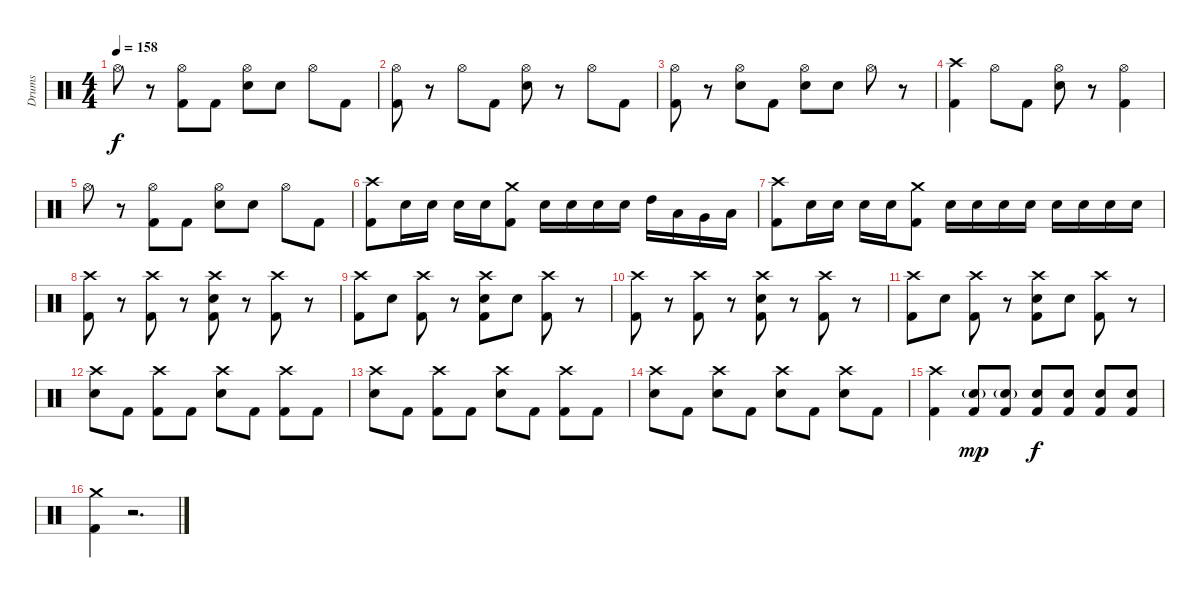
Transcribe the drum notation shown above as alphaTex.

\track ("Drums" "Drums") {instrument percussion}
\staff {score}
\articulation defaults
\ts (4 4)
\tempo 158
\clef neutral
\ks c "Hi-Hat (open)".8{dy f}
r.8 ("Hi-Hat (open)" "Kick (hit) 2").8 "Kick (hit) 2".8 ("Hi-Hat (open)" "Electric Snare (hit)").8 "Electric Snare (hit)".8 "Hi-Hat (open)".8 "Kick (hit) 2".8 |
("Hi-Hat (open)" "Kick (hit) 2").8 r.8 "Hi-Hat (open)".8 "Kick (hit) 2".8 ("Hi-Hat (open)" "Electric Snare (hit)").8 r.8 "Hi-Hat (open)".8 "Kick (hit) 2".8 |
("Hi-Hat (open)" "Kick (hit) 2").8 r.8 ("Hi-Hat (open)" "Electric Snare (hit)").8 "Kick (hit) 2".8 ("Hi-Hat (open)" "Electric Snare (hit)").8 "Electric Snare (hit)".8 "Hi-Hat (open)".8 r.8 |
("Crash high (hit)" "Kick (hit) 2").4 "Hi-Hat (open)".8 "Kick (hit) 2".8 ("Hi-Hat (open)" "Electric Snare (hit)").8 r.8 ("Hi-Hat (open)" "Kick (hit) 2").4 |
"Hi-Hat (open)".8 r.8 ("Hi-Hat (open)" "Kick (hit) 2").8 "Kick (hit) 2".8 ("Hi-Hat (open)" "Electric Snare (hit)").8 "Electric Snare (hit)".8 "Hi-Hat (open)".8 "Kick (hit) 2".8 |
("Crash high (hit)" "Kick (hit) 2").8 "Electric Snare (hit)".16 "Electric Snare (hit)".16 "Electric Snare (hit)".16 "Electric Snare (hit)".16 ("Crash medium (hit)" "Kick (hit) 2").8 "Electric Snare (hit)".16 "Electric Snare (hit)".16 "Electric Snare (hit)".16 "Electric Snare (hit)".16 "High Tom (hit)".16 "Low Tom (hit)".16 "Very Low Tom (hit)".16 "Low Floor Tom (hit)".16 |
("Crash high (hit)" "Kick (hit) 2").8 "Electric Snare (hit)".16 "Electric Snare (hit)".16 "Electric Snare (hit)".16 "Electric Snare (hit)".16 ("Crash medium (hit)" "Kick (hit) 2").8 "Electric Snare (hit)".16 "Electric Snare (hit)".16 "Electric Snare (hit)".16 "Electric Snare (hit)".16 "Electric Snare (hit)".16 "Electric Snare (hit)".16 "Electric Snare (hit)".16 "Electric Snare (hit)".16 |
("Crash high (hit)" "Kick (hit) 2").8 r.8 ("Crash high (hit)" "Kick (hit) 2").8 r.8 ("Crash high (hit)" "Electric Snare (hit)" "Kick (hit) 2").8 r.8 ("Crash high (hit)" "Kick (hit) 2").8 r.8 |
("Crash high (hit)" "Kick (hit) 2").8 "Electric Snare (hit)".8 ("Crash high (hit)" "Kick (hit) 2").8 r.8 ("Crash high (hit)" "Electric Snare (hit)" "Kick (hit) 2").8 "Electric Snare (hit)".8 ("Crash high (hit)" "Kick (hit) 2").8 r.8 |
("Crash high (hit)" "Kick (hit) 2").8 r.8 ("Crash high (hit)" "Kick (hit) 2").8 r.8 ("Crash high (hit)" "Electric Snare (hit)" "Kick (hit) 2").8 r.8 ("Crash high (hit)" "Kick (hit) 2").8 r.8 |
("Crash high (hit)" "Kick (hit) 2").8 "Electric Snare (hit)".8 ("Crash high (hit)" "Kick (hit) 2").8 r.8 ("Crash high (hit)" "Electric Snare (hit)" "Kick (hit) 2").8 "Electric Snare (hit)".8 ("Crash high (hit)" "Kick (hit) 2").8 r.8 |
("Crash high (hit)" "Electric Snare (hit)").8 "Kick (hit) 2".8 ("Crash high (hit)" "Kick (hit) 2").8 "Kick (hit) 2".8 ("Crash high (hit)" "Electric Snare (hit)").8 "Kick (hit) 2".8 ("Crash high (hit)" "Kick (hit) 2").8 "Kick (hit) 2".8 |
("Crash high (hit)" "Electric Snare (hit)").8 "Kick (hit) 2".8 ("Crash high (hit)" "Kick (hit) 2").8 "Kick (hit) 2".8 ("Crash high (hit)" "Electric Snare (hit)").8 "Kick (hit) 2".8 ("Crash high (hit)" "Kick (hit) 2").8 "Kick (hit) 2".8 |
("Crash high (hit)" "Electric Snare (hit)").8 "Kick (hit) 2".8 ("Crash high (hit)" "Electric Snare (hit)").8 "Kick (hit) 2".8 ("Crash high (hit)" "Electric Snare (hit)").8 "Kick (hit) 2".8 ("Crash high (hit)" "Electric Snare (hit)").8 "Kick (hit) 2".8 |
("Crash high (hit)" "Kick (hit) 2").4 ("Electric Snare (hit)"{g} "Kick (hit) 2").8{dy mp} ("Electric Snare (hit)"{g} "Kick (hit) 2").8 ("Electric Snare (hit)" "Kick (hit) 2").8{dy f} ("Electric Snare (hit)" "Kick (hit) 2").8 ("Electric Snare (hit)" "Kick (hit) 2").8 ("Electric Snare (hit)" "Kick (hit) 2").8 |
("Crash medium (hit)" "Kick (hit) 2").4 r.2{d}
